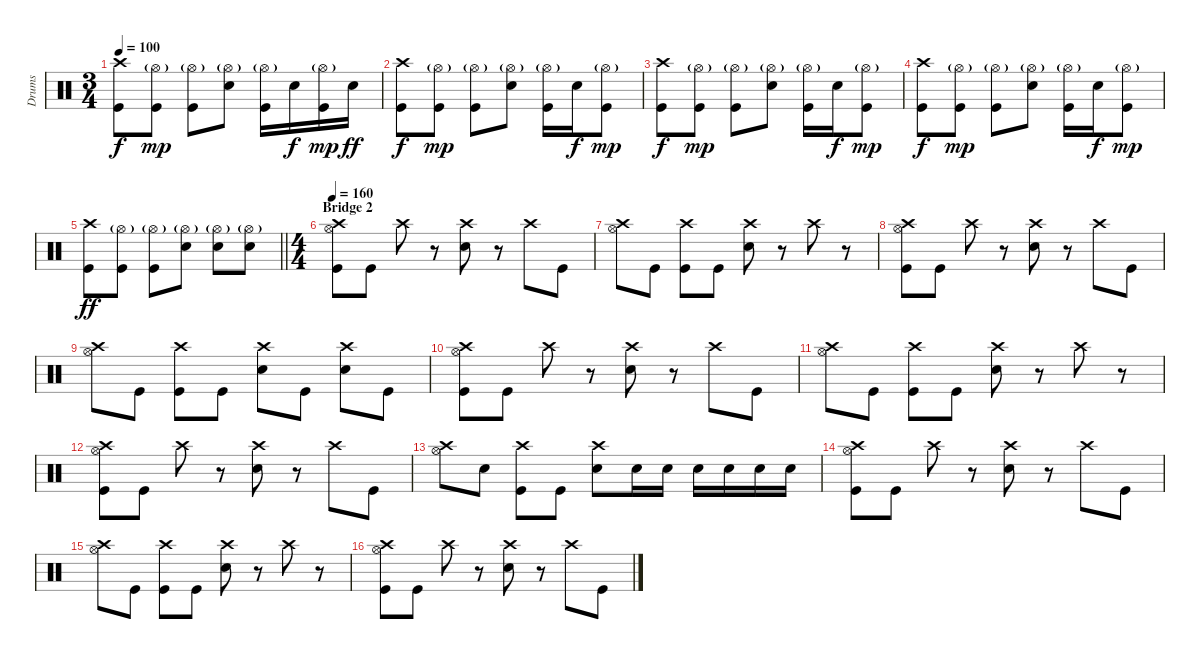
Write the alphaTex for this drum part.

\track ("Drums" "Drums") {instrument percussion}
\staff {score}
\articulation defaults
\ts (3 4)
\tempo 100
\clef neutral
\ks c
("Crash high (hit)" "Kick (hit)").8{dy f} ("Hi-Hat (open)"{g} "Kick (hit)").8{dy mp} ("Hi-Hat (open)"{g} "Kick (hit)").8 ("Hi-Hat (open)"{g} "Electric Snare (hit)").8 ("Hi-Hat (open)"{g} "Kick (hit)").16 "Electric Snare (hit)".16{dy f} ("Hi-Hat (open)"{g} "Kick (hit)").16{dy mp} "Electric Snare (hit)".16{dy ff} |
("Crash high (hit)" "Kick (hit)").8{dy f} ("Hi-Hat (open)"{g} "Kick (hit)").8{dy mp} ("Hi-Hat (open)"{g} "Kick (hit)").8 ("Hi-Hat (open)"{g} "Electric Snare (hit)").8 ("Hi-Hat (open)"{g} "Kick (hit)").16 "Electric Snare (hit)".16{dy f} ("Hi-Hat (open)"{g} "Kick (hit)").8{dy mp} |
("Crash high (hit)" "Kick (hit)").8{dy f} ("Hi-Hat (open)"{g} "Kick (hit)").8{dy mp} ("Hi-Hat (open)"{g} "Kick (hit)").8 ("Hi-Hat (open)"{g} "Electric Snare (hit)").8 ("Hi-Hat (open)"{g} "Kick (hit)").16 "Electric Snare (hit)".16{dy f} ("Hi-Hat (open)"{g} "Kick (hit)").8{dy mp} |
("Crash high (hit)" "Kick (hit)").8{dy f} ("Hi-Hat (open)"{g} "Kick (hit)").8{dy mp} ("Hi-Hat (open)"{g} "Kick (hit)").8 ("Hi-Hat (open)"{g} "Electric Snare (hit)").8 ("Hi-Hat (open)"{g} "Kick (hit)").16 "Electric Snare (hit)".16{dy f} ("Hi-Hat (open)"{g} "Kick (hit)").8{dy mp} |
\barLineRight lightlight
("Crash high (hit)" "Kick (hit)").8{dy ff} ("Hi-Hat (open)"{g} "Kick (hit)").8 ("Hi-Hat (open)"{g} "Kick (hit)").8 ("Hi-Hat (open)"{g} "Electric Snare (hit)").8 ("Hi-Hat (open)"{g} "Electric Snare (hit)").8 ("Hi-Hat (open)"{g} "Electric Snare (hit)").8 |
\ts (4 4)
\section ("" "Bridge 2")
\tempo 160
("Hi-Hat (open)" "Crash high (hit)" "Kick (hit)").8 "Kick (hit)".8 "Crash high (hit)".8 r.8 ("Crash high (hit)" "Electric Snare (hit)").8 r.8 "Crash high (hit)".8 "Kick (hit)".8 |
("Hi-Hat (open)" "Crash high (hit)").8 "Kick (hit)".8 ("Crash high (hit)" "Kick (hit)").8 "Kick (hit)".8 ("Crash high (hit)" "Electric Snare (hit)").8 r.8 "Crash high (hit)".8 r.8 |
("Hi-Hat (open)" "Crash high (hit)" "Kick (hit)").8 "Kick (hit)".8 "Crash high (hit)".8 r.8 ("Crash high (hit)" "Electric Snare (hit)").8 r.8 "Crash high (hit)".8 "Kick (hit)".8 |
("Hi-Hat (open)" "Crash high (hit)").8 "Kick (hit)".8 ("Crash high (hit)" "Kick (hit)").8 "Kick (hit)".8 ("Crash high (hit)" "Electric Snare (hit)").8 "Kick (hit)".8 ("Crash high (hit)" "Electric Snare (hit)").8 "Kick (hit)".8 |
("Hi-Hat (open)" "Crash high (hit)" "Kick (hit)").8 "Kick (hit)".8 "Crash high (hit)".8 r.8 ("Crash high (hit)" "Electric Snare (hit)").8 r.8 "Crash high (hit)".8 "Kick (hit)".8 |
("Hi-Hat (open)" "Crash high (hit)").8 "Kick (hit)".8 ("Crash high (hit)" "Kick (hit)").8 "Kick (hit)".8 ("Crash high (hit)" "Electric Snare (hit)").8 r.8 "Crash high (hit)".8 r.8 |
("Hi-Hat (open)" "Crash high (hit)" "Kick (hit)").8 "Kick (hit)".8 "Crash high (hit)".8 r.8 ("Crash high (hit)" "Electric Snare (hit)").8 r.8 "Crash high (hit)".8 "Kick (hit)".8 |
("Hi-Hat (open)" "Crash high (hit)").8 "Electric Snare (hit)".8 ("Crash high (hit)" "Kick (hit)").8 "Kick (hit)".8 ("Crash high (hit)" "Electric Snare (hit)").8 "Electric Snare (hit)".16 "Electric Snare (hit)".16 "Electric Snare (hit)".16 "Electric Snare (hit)".16 "Electric Snare (hit)".16 "Electric Snare (hit)".16 |
("Hi-Hat (open)" "Crash high (hit)" "Kick (hit)").8 "Kick (hit)".8 "Crash high (hit)".8 r.8 ("Crash high (hit)" "Electric Snare (hit)").8 r.8 "Crash high (hit)".8 "Kick (hit)".8 |
("Hi-Hat (open)" "Crash high (hit)").8 "Kick (hit)".8 ("Crash high (hit)" "Kick (hit)").8 "Kick (hit)".8 ("Crash high (hit)" "Electric Snare (hit)").8 r.8 "Crash high (hit)".8 r.8 |
("Hi-Hat (open)" "Crash high (hit)" "Kick (hit)").8 "Kick (hit)".8 "Crash high (hit)".8 r.8 ("Crash high (hit)" "Electric Snare (hit)").8 r.8 "Crash high (hit)".8 "Kick (hit)".8
